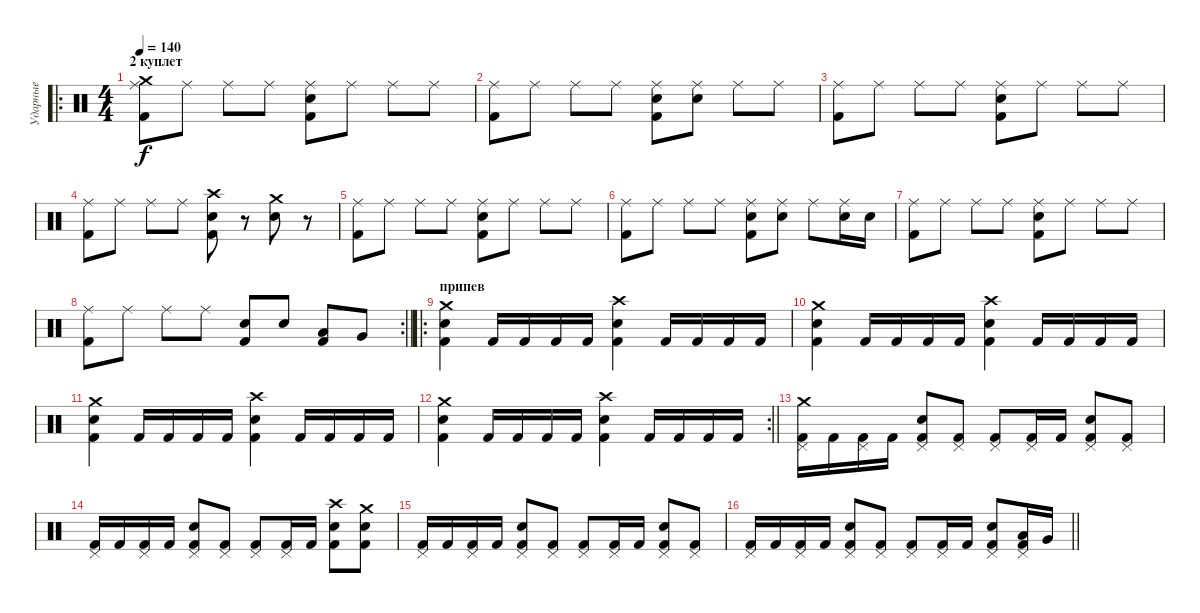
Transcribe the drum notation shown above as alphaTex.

\track ("Ударные" "Ударные") {instrument percussion}
\staff {score}
\articulation defaults
\ro
\ts (4 4)
\section ("" "2 куплет")
\tempo 140
\clef neutral
\ks c
("Crash medium (hit)" "Ride (middle)" "Kick (hit) 2").8{dy f} "Ride (middle)".8 "Ride (middle)".8 "Ride (middle)".8 ("Ride (middle)" "Snare (hit) 2" "Kick (hit) 2").8 "Ride (middle)".8 "Ride (middle)".8 "Ride (middle)".8 |
("Ride (middle)" "Kick (hit) 2").8 "Ride (middle)".8 "Ride (middle)".8 "Ride (middle)".8 ("Ride (middle)" "Snare (hit) 2" "Kick (hit) 2").8 ("Ride (middle)" "Snare (hit) 2").8 "Ride (middle)".8 "Ride (middle)".8 |
("Ride (middle)" "Kick (hit) 2").8 "Ride (middle)".8 "Ride (middle)".8 "Ride (middle)".8 ("Ride (middle)" "Snare (hit) 2" "Kick (hit) 2").8 "Ride (middle)".8 "Ride (middle)".8 "Ride (middle)".8 |
("Ride (middle)" "Kick (hit) 2").8 "Ride (middle)".8 "Ride (middle)".8 "Ride (middle)".8 ("Crash high (hit)" "Snare (hit) 2" "Kick (hit) 2").8 r.8 ("Crash medium (hit)" "Snare (hit) 2").8 r.8 |
("Ride (middle)" "Kick (hit) 2").8 "Ride (middle)".8 "Ride (middle)".8 "Ride (middle)".8 ("Ride (middle)" "Snare (hit) 2" "Kick (hit) 2").8 "Ride (middle)".8 "Ride (middle)".8 "Ride (middle)".8 |
("Ride (middle)" "Kick (hit) 2").8 "Ride (middle)".8 "Ride (middle)".8 "Ride (middle)".8 ("Ride (middle)" "Snare (hit) 2" "Kick (hit) 2").8 ("Ride (middle)" "Snare (hit) 2").8 "Ride (middle)".8 ("Ride (middle)" "Snare (hit) 2").16 "Snare (hit) 2".16 |
("Ride (middle)" "Kick (hit) 2").8 "Ride (middle)".8 "Ride (middle)".8 "Ride (middle)".8 ("Ride (middle)" "Snare (hit) 2" "Kick (hit) 2").8 "Ride (middle)".8 "Ride (middle)".8 "Ride (middle)".8 |
\rc 2
\barLineRight lightlight
("Ride (middle)" "Kick (hit) 2").8 "Ride (middle)".8 "Ride (middle)".8 "Ride (middle)".8 ("Snare (hit) 2" "Kick (hit) 2").8 "Snare (hit) 2".8 ("Low Tom (hit)" "Kick (hit) 2").8 "Very Low Tom (hit)".8 |
\ro
\section ("" "припев")
("Snare (hit) 2" "Crash medium (hit)" "Kick (hit) 2").4 "Kick (hit) 2".16 "Kick (hit) 2".16 "Kick (hit) 2".16 "Kick (hit) 2".16 ("Snare (hit) 2" "Crash high (hit)" "Kick (hit) 2").4 "Kick (hit) 2".16 "Kick (hit) 2".16 "Kick (hit) 2".16 "Kick (hit) 2".16 |
("Snare (hit) 2" "Crash medium (hit)" "Kick (hit) 2").4 "Kick (hit) 2".16 "Kick (hit) 2".16 "Kick (hit) 2".16 "Kick (hit) 2".16 ("Snare (hit) 2" "Crash high (hit)" "Kick (hit) 2").4 "Kick (hit) 2".16 "Kick (hit) 2".16 "Kick (hit) 2".16 "Kick (hit) 2".16 |
("Snare (hit) 2" "Crash medium (hit)" "Kick (hit) 2").4 "Kick (hit) 2".16 "Kick (hit) 2".16 "Kick (hit) 2".16 "Kick (hit) 2".16 ("Snare (hit) 2" "Crash high (hit)" "Kick (hit) 2").4 "Kick (hit) 2".16 "Kick (hit) 2".16 "Kick (hit) 2".16 "Kick (hit) 2".16 |
\rc 2
\barLineRight lightlight
("Snare (hit) 2" "Crash medium (hit)" "Kick (hit) 2").4 "Kick (hit) 2".16 "Kick (hit) 2".16 "Kick (hit) 2".16 "Kick (hit) 2".16 ("Snare (hit) 2" "Crash high (hit)" "Kick (hit) 2").4 "Kick (hit) 2".16 "Kick (hit) 2".16 "Kick (hit) 2".16 "Kick (hit) 2".16 |
("Crash medium (hit)" "Pedal Hi-Hat (hit)" "Kick (hit) 2").16 "Kick (hit) 2".16 ("Pedal Hi-Hat (hit)" "Kick (hit) 2").16 "Kick (hit) 2".16 ("Snare (hit) 2" "Pedal Hi-Hat (hit)" "Kick (hit) 2").8 ("Pedal Hi-Hat (hit)" "Kick (hit) 2").8 ("Pedal Hi-Hat (hit)" "Kick (hit) 2").8 ("Pedal Hi-Hat (hit)" "Kick (hit) 2").16 "Kick (hit) 2".16 ("Snare (hit) 2" "Pedal Hi-Hat (hit)" "Kick (hit) 2").8 ("Pedal Hi-Hat (hit)" "Kick (hit) 2").8 |
("Pedal Hi-Hat (hit)" "Kick (hit) 2").16 "Kick (hit) 2".16 ("Pedal Hi-Hat (hit)" "Kick (hit) 2").16 "Kick (hit) 2".16 ("Snare (hit) 2" "Pedal Hi-Hat (hit)" "Kick (hit) 2").8 ("Pedal Hi-Hat (hit)" "Kick (hit) 2").8 ("Pedal Hi-Hat (hit)" "Kick (hit) 2").8 ("Pedal Hi-Hat (hit)" "Kick (hit) 2").16 "Kick (hit) 2".16 ("Snare (hit) 2" "Crash high (hit)" "Kick (hit) 2").8 ("Snare (hit) 2" "Crash medium (hit)" "Kick (hit) 2").8 |
("Pedal Hi-Hat (hit)" "Kick (hit) 2").16 "Kick (hit) 2".16 ("Pedal Hi-Hat (hit)" "Kick (hit) 2").16 "Kick (hit) 2".16 ("Snare (hit) 2" "Pedal Hi-Hat (hit)" "Kick (hit) 2").8 ("Pedal Hi-Hat (hit)" "Kick (hit) 2").8 ("Pedal Hi-Hat (hit)" "Kick (hit) 2").8 ("Pedal Hi-Hat (hit)" "Kick (hit) 2").16 "Kick (hit) 2".16 ("Snare (hit) 2" "Pedal Hi-Hat (hit)" "Kick (hit) 2").8 ("Pedal Hi-Hat (hit)" "Kick (hit) 2").8 |
\barLineRight lightlight
("Pedal Hi-Hat (hit)" "Kick (hit) 2").16 "Kick (hit) 2".16 ("Pedal Hi-Hat (hit)" "Kick (hit) 2").16 "Kick (hit) 2".16 ("Snare (hit) 2" "Pedal Hi-Hat (hit)" "Kick (hit) 2").8 ("Pedal Hi-Hat (hit)" "Kick (hit) 2").8 ("Pedal Hi-Hat (hit)" "Kick (hit) 2").8 ("Pedal Hi-Hat (hit)" "Kick (hit) 2").16 "Kick (hit) 2".16 ("Snare (hit) 2" "Pedal Hi-Hat (hit)" "Kick (hit) 2").8 ("Low Tom (hit)" "Pedal Hi-Hat (hit)" "Kick (hit) 2").16 "Very Low Tom (hit)".16
